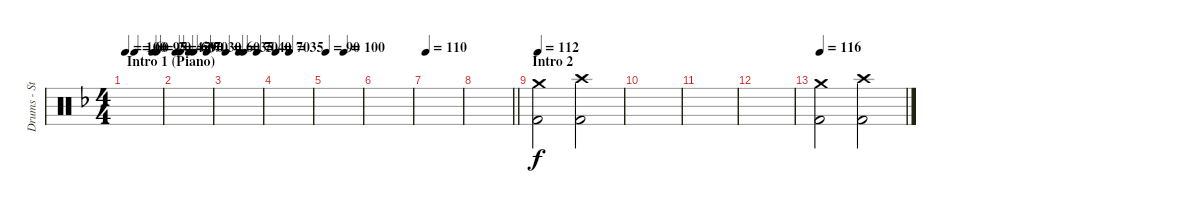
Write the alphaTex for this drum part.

\track ("Drums - Steve Wacholz" "Drums - St") {instrument percussion}
\staff {score}
\articulation defaults
\ts (4 4)
\section ("" "Intro 1 (Piano)")
\tempo 100
\tempo 45
\tempo (60 0.25)
\tempo (95 0.75)
\tempo (20 0.875)
\tempo 100
\clef neutral
\ks f
|
\tempo 45
\tempo (60 0.125)
\tempo (90 0.375)
\tempo (70 0.5)
\tempo (30 0.875)
|
\tempo 60
\tempo (35 0.375)
\tempo (70 0.5)
\tempo (40 0.875)
|
\tempo 70
\tempo (35 0.375)
|
\tempo 90
\tempo (100 0.5)
|
|
\tempo 110
|
\barLineRight lightlight
|
\section ("" "Intro 2")
\tempo 112
("Kick (hit) 2" "Crash medium (hit)").2 ("Kick (hit) 2" "Crash high (hit)").2 |
|
|
|
\tempo 116
("Kick (hit) 2" "Crash medium (hit)").2 ("Kick (hit) 2" "Crash high (hit)").2
